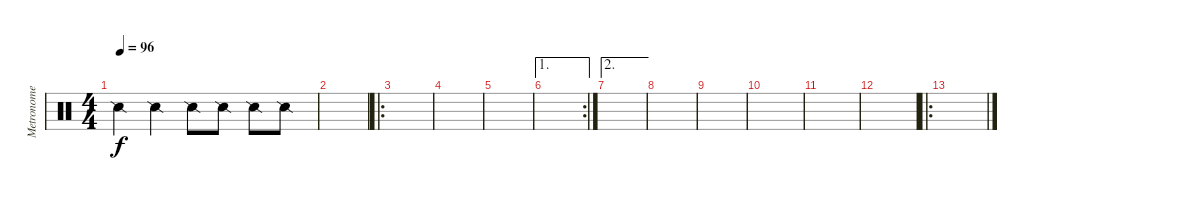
\track ("Metronome" "Metronome") {instrument percussion}
\staff {score}
\articulation defaults
\ts (4 4)
\tempo 96
\clef neutral
\ks c "Snare (side stick) 2".4{dy f} "Snare (side stick) 2".4 "Snare (side stick) 2".8 "Snare (side stick) 2".8 "Snare (side stick) 2".8 "Snare (side stick) 2".8
|
|
\ro
|
|
|
\ae 1
\rc 2
|
\ae 2
|
|
|
|
|
|
\ro
